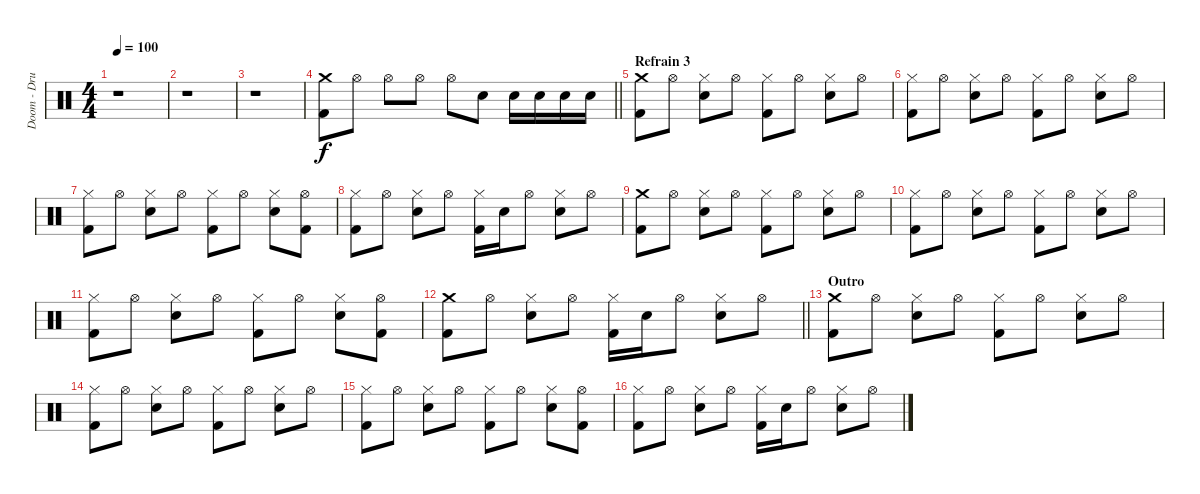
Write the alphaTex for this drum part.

\track ("Doom - Drums" "Doom - Dru") {instrument percussion}
\staff {score}
\articulation defaults
\ts (4 4)
\tempo 100
\clef neutral
\ks c
r.1{dy f} |
r.1 |
r.1 |
\barLineRight lightlight
("Crash medium (hit)" "Kick (hit) 2").8 "Hi-Hat (open)".8 "Hi-Hat (open)".8 "Hi-Hat (open)".8 "Hi-Hat (open)".8 "Snare (hit) 2".8 "Snare (hit) 2".16 "Snare (hit) 2".16 "Snare (hit) 2".16 "Snare (hit) 2".16 |
\section ("" "Refrain 3")
("Crash medium (hit)" "Kick (hit) 2").8 "Hi-Hat (open)".8 ("Hi-Hat (closed)" "Snare (hit) 2").8 "Hi-Hat (open)".8 ("Hi-Hat (closed)" "Kick (hit) 2").8 "Hi-Hat (open)".8 ("Hi-Hat (closed)" "Snare (hit) 2").8 "Hi-Hat (open)".8 |
("Hi-Hat (closed)" "Kick (hit) 2").8 "Hi-Hat (open)".8 ("Hi-Hat (closed)" "Snare (hit) 2").8 "Hi-Hat (open)".8 ("Hi-Hat (closed)" "Kick (hit) 2").8 "Hi-Hat (open)".8 ("Hi-Hat (closed)" "Snare (hit) 2").8 "Hi-Hat (open)".8 |
("Hi-Hat (closed)" "Kick (hit) 2").8 "Hi-Hat (open)".8 ("Hi-Hat (closed)" "Snare (hit) 2").8 "Hi-Hat (open)".8 ("Hi-Hat (closed)" "Kick (hit) 2").8 "Hi-Hat (open)".8 ("Hi-Hat (closed)" "Snare (hit) 2").8 ("Hi-Hat (open)" "Kick (hit) 2").8 |
("Hi-Hat (closed)" "Kick (hit) 2").8 "Hi-Hat (open)".8 ("Hi-Hat (closed)" "Snare (hit) 2").8 "Hi-Hat (open)".8 ("Hi-Hat (closed)" "Kick (hit) 2").16 "Snare (hit) 2".16 "Hi-Hat (open)".8 ("Hi-Hat (closed)" "Snare (hit) 2").8 "Hi-Hat (open)".8 |
("Crash medium (hit)" "Kick (hit) 2").8 "Hi-Hat (open)".8 ("Hi-Hat (closed)" "Snare (hit) 2").8 "Hi-Hat (open)".8 ("Hi-Hat (closed)" "Kick (hit) 2").8 "Hi-Hat (open)".8 ("Hi-Hat (closed)" "Snare (hit) 2").8 "Hi-Hat (open)".8 |
("Hi-Hat (closed)" "Kick (hit) 2").8 "Hi-Hat (open)".8 ("Hi-Hat (closed)" "Snare (hit) 2").8 "Hi-Hat (open)".8 ("Hi-Hat (closed)" "Kick (hit) 2").8 "Hi-Hat (open)".8 ("Hi-Hat (closed)" "Snare (hit) 2").8 "Hi-Hat (open)".8 |
("Hi-Hat (closed)" "Kick (hit) 2").8 "Hi-Hat (open)".8 ("Hi-Hat (closed)" "Snare (hit) 2").8 "Hi-Hat (open)".8 ("Hi-Hat (closed)" "Kick (hit) 2").8 "Hi-Hat (open)".8 ("Hi-Hat (closed)" "Snare (hit) 2").8 ("Hi-Hat (open)" "Kick (hit) 2").8 |
\barLineRight lightlight
("Crash medium (hit)" "Kick (hit) 2").8 "Hi-Hat (open)".8 ("Hi-Hat (closed)" "Snare (hit) 2").8 "Hi-Hat (open)".8 ("Hi-Hat (closed)" "Kick (hit) 2").16 "Snare (hit) 2".16 "Hi-Hat (open)".8 ("Hi-Hat (closed)" "Snare (hit) 2").8 "Hi-Hat (open)".8 |
\section ("" "Outro")
("Crash medium (hit)" "Kick (hit) 2").8 "Hi-Hat (open)".8 ("Hi-Hat (closed)" "Snare (hit) 2").8 "Hi-Hat (open)".8 ("Hi-Hat (closed)" "Kick (hit) 2").8 "Hi-Hat (open)".8 ("Hi-Hat (closed)" "Snare (hit) 2").8 "Hi-Hat (open)".8 |
("Hi-Hat (closed)" "Kick (hit) 2").8 "Hi-Hat (open)".8 ("Hi-Hat (closed)" "Snare (hit) 2").8 "Hi-Hat (open)".8 ("Hi-Hat (closed)" "Kick (hit) 2").8 "Hi-Hat (open)".8 ("Hi-Hat (closed)" "Snare (hit) 2").8 "Hi-Hat (open)".8 |
("Hi-Hat (closed)" "Kick (hit) 2").8 "Hi-Hat (open)".8 ("Hi-Hat (closed)" "Snare (hit) 2").8 "Hi-Hat (open)".8 ("Hi-Hat (closed)" "Kick (hit) 2").8 "Hi-Hat (open)".8 ("Hi-Hat (closed)" "Snare (hit) 2").8 ("Hi-Hat (open)" "Kick (hit) 2").8 |
("Hi-Hat (closed)" "Kick (hit) 2").8 "Hi-Hat (open)".8 ("Hi-Hat (closed)" "Snare (hit) 2").8 "Hi-Hat (open)".8 ("Hi-Hat (closed)" "Kick (hit) 2").16 "Snare (hit) 2".16 "Hi-Hat (open)".8 ("Hi-Hat (closed)" "Snare (hit) 2").8 "Hi-Hat (open)".8
